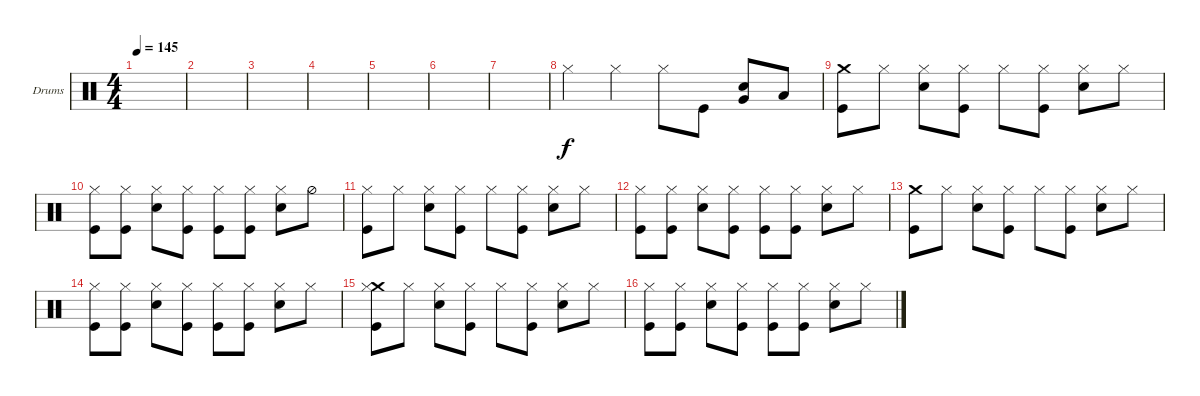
\defaultSystemsLayout 4
\bracketExtendMode groupsimilarinstruments
\firstSystemTrackNameOrientation horizontal
\otherSystemsTrackNameOrientation horizontal
\track ("Drumkit" "Drums") {instrument percussion}
\staff {score}
\articulation defaults
\ts (4 4)
\tempo 145
\clef neutral
\ks c
|
|
|
|
|
|
|
"Hi-Hat (closed)".4 "Hi-Hat (closed)".4 "Hi-Hat (closed)".8 "Kick (hit)".8 ("Snare (hit) 2" "Very Low Tom (hit)").8 "Low Tom (hit)".8 |
("Crash medium (hit)" "Kick (hit)").8{dy f} "Hi-Hat (closed)".8 ("Hi-Hat (closed)" "Snare (hit) 2").8 ("Kick (hit)" "Hi-Hat (closed)").8 "Hi-Hat (closed)".8 ("Kick (hit)" "Hi-Hat (closed)").8 ("Hi-Hat (closed)" "Snare (hit) 2").8 "Hi-Hat (closed)".8 |
("Hi-Hat (closed)" "Kick (hit)").8 ("Kick (hit)" "Hi-Hat (closed)").8 ("Hi-Hat (closed)" "Snare (hit) 2").8 ("Hi-Hat (closed)" "Kick (hit)").8 ("Hi-Hat (closed)" "Kick (hit)").8 ("Kick (hit)" "Hi-Hat (closed)").8 ("Hi-Hat (closed)" "Snare (hit) 2").8 "Hi-Hat (half)".8 |
("Kick (hit)" "Hi-Hat (closed)").8 "Hi-Hat (closed)".8 ("Hi-Hat (closed)" "Snare (hit) 2").8 ("Kick (hit)" "Hi-Hat (closed)").8 "Hi-Hat (closed)".8 ("Kick (hit)" "Hi-Hat (closed)").8 ("Hi-Hat (closed)" "Snare (hit) 2").8 "Hi-Hat (closed)".8 |
("Hi-Hat (closed)" "Kick (hit)").8 ("Kick (hit)" "Hi-Hat (closed)").8 ("Hi-Hat (closed)" "Snare (hit) 2").8 ("Hi-Hat (closed)" "Kick (hit)").8 ("Hi-Hat (closed)" "Kick (hit)").8 ("Kick (hit)" "Hi-Hat (closed)").8 ("Hi-Hat (closed)" "Snare (hit) 2").8 "Hi-Hat (closed)".8 |
("Crash medium (hit)" "Kick (hit)").8 "Hi-Hat (closed)".8 ("Hi-Hat (closed)" "Snare (hit) 2").8 ("Kick (hit)" "Hi-Hat (closed)").8 "Hi-Hat (closed)".8 ("Kick (hit)" "Hi-Hat (closed)").8 ("Hi-Hat (closed)" "Snare (hit) 2").8 "Hi-Hat (closed)".8 |
("Hi-Hat (closed)" "Kick (hit)").8 ("Kick (hit)" "Hi-Hat (closed)").8 ("Hi-Hat (closed)" "Snare (hit) 2").8 ("Hi-Hat (closed)" "Kick (hit)").8 ("Hi-Hat (closed)" "Kick (hit)").8 ("Kick (hit)" "Hi-Hat (closed)").8 ("Hi-Hat (closed)" "Snare (hit) 2").8 "Hi-Hat (closed)".8 |
("Crash medium (hit)" "Kick (hit)" "Hi-Hat (closed)").8 "Hi-Hat (closed)".8 ("Hi-Hat (closed)" "Snare (hit) 2").8 ("Kick (hit)" "Hi-Hat (closed)").8 "Hi-Hat (closed)".8 ("Kick (hit)" "Hi-Hat (closed)").8 ("Hi-Hat (closed)" "Snare (hit) 2").8 "Hi-Hat (closed)".8 |
("Hi-Hat (closed)" "Kick (hit)").8 ("Kick (hit)" "Hi-Hat (closed)").8 ("Hi-Hat (closed)" "Snare (hit) 2").8 ("Hi-Hat (closed)" "Kick (hit)").8 ("Hi-Hat (closed)" "Kick (hit)").8 ("Kick (hit)" "Hi-Hat (closed)").8 ("Hi-Hat (closed)" "Snare (hit) 2").8 "Hi-Hat (closed)".8
